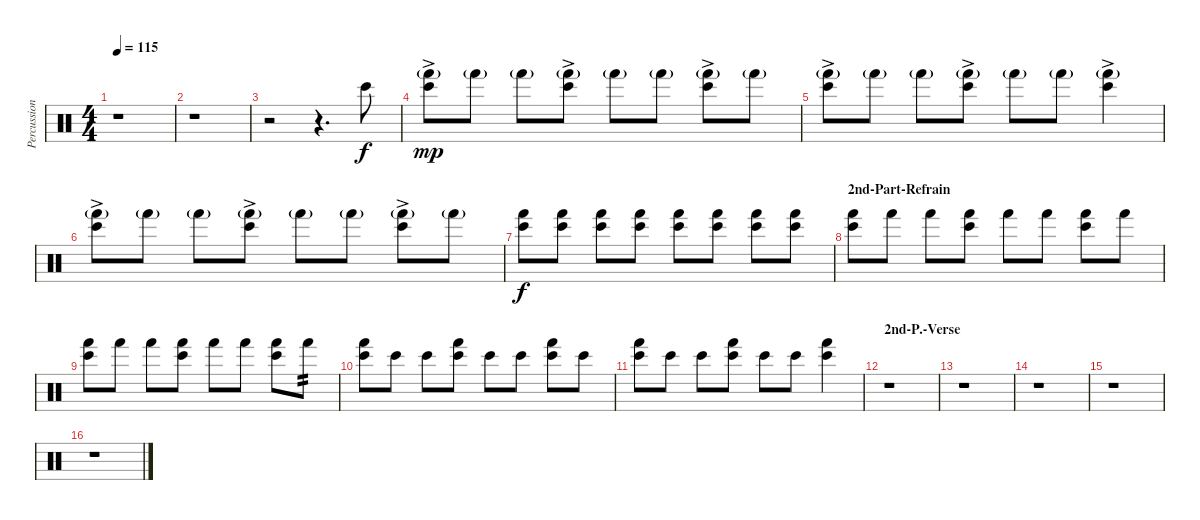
\track ("Percussions" "Percussion") {instrument percussion}
\staff {score}
\articulation defaults
\ts (4 4)
\tempo 115
\clef neutral
\ks c
r.1{dy f} |
r.1 |
r.2 r.4{d} "Bongo High (hit)".8 |
("Bongo High (hit)"{ac} "Hand (hit)"{g}).8{dy mp} "Hand (hit)"{g}.8 "Hand (hit)"{g}.8 ("Bongo High (hit)"{ac} "Hand (hit)"{g}).8 "Hand (hit)"{g}.8 "Hand (hit)"{g}.8 ("Bongo High (hit)"{ac} "Hand (hit)"{g}).8 "Hand (hit)"{g}.8 |
("Bongo High (hit)"{ac} "Hand (hit)"{g}).8 "Hand (hit)"{g}.8 "Hand (hit)"{g}.8 ("Bongo High (hit)"{ac} "Hand (hit)"{g}).8 "Hand (hit)"{g}.8 "Hand (hit)"{g}.8 ("Bongo High (hit)"{ac} "Hand (hit)"{g}).4 |
("Bongo High (hit)"{ac} "Hand (hit)"{g}).8 "Hand (hit)"{g}.8 "Hand (hit)"{g}.8 ("Bongo High (hit)"{ac} "Hand (hit)"{g}).8 "Hand (hit)"{g}.8 "Hand (hit)"{g}.8 ("Bongo High (hit)"{ac} "Hand (hit)"{g}).8 "Hand (hit)"{g}.8 |
("Bongo High (hit)" "Hand (hit)").8{dy f} ("Bongo High (hit)" "Hand (hit)").8 ("Bongo High (hit)" "Hand (hit)").8 ("Bongo High (hit)" "Hand (hit)").8 ("Bongo High (hit)" "Hand (hit)").8 ("Bongo High (hit)" "Hand (hit)").8 ("Bongo High (hit)" "Hand (hit)").8 ("Bongo High (hit)" "Hand (hit)").8 |
\section ("" "2nd-Part-Refrain")
("Bongo High (hit)" "Hand (hit)").8 "Hand (hit)".8 "Hand (hit)".8 ("Bongo High (hit)" "Hand (hit)").8 "Hand (hit)".8 "Hand (hit)".8 ("Bongo High (hit)" "Hand (hit)").8 "Hand (hit)".8 |
("Bongo High (hit)" "Hand (hit)").8 "Hand (hit)".8 "Hand (hit)".8 ("Bongo High (hit)" "Hand (hit)").8 "Hand (hit)".8 "Hand (hit)".8 ("Bongo High (hit)" "Hand (hit)").8 "Hand (hit)".8{tp 2} |
("Bongo High (hit)" "Hand (hit)").8 "Bongo High (hit)".8 "Bongo High (hit)".8 ("Bongo High (hit)" "Hand (hit)").8 "Bongo High (hit)".8 "Bongo High (hit)".8 ("Bongo High (hit)" "Hand (hit)").8 "Bongo High (hit)".8 |
("Bongo High (hit)" "Hand (hit)").8 "Bongo High (hit)".8 "Bongo High (hit)".8 ("Bongo High (hit)" "Hand (hit)").8 "Bongo High (hit)".8 "Bongo High (hit)".8 ("Bongo High (hit)" "Hand (hit)").4 |
\section ("" "2nd-P.-Verse")
r.1 |
r.1 |
r.1 |
r.1 |
r.1
